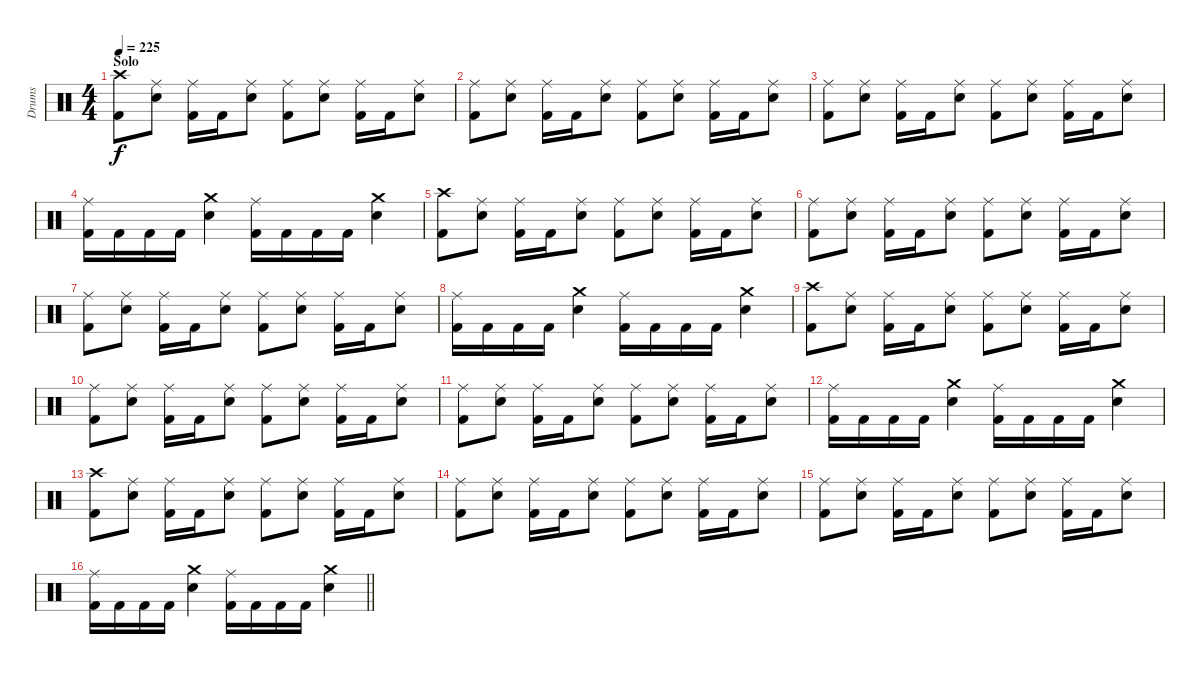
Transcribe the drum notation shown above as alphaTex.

\track ("Drums" "Drums") {instrument percussion}
\staff {score}
\articulation defaults
\ts (4 4)
\section ("" "Solo")
\tempo 225
\clef neutral
\ks c
("Crash high (hit)" "Kick (hit) 2").8{dy f} ("Ride (middle)" "Snare (hit) 2").8 ("Ride (middle)" "Kick (hit) 2").16 "Kick (hit) 2".16 ("Ride (middle)" "Snare (hit) 2").8 ("Ride (middle)" "Kick (hit) 2").8 ("Ride (middle)" "Snare (hit) 2").8 ("Ride (middle)" "Kick (hit) 2").16 "Kick (hit) 2".16 ("Ride (middle)" "Snare (hit) 2").8 |
("Ride (middle)" "Kick (hit) 2").8 ("Ride (middle)" "Snare (hit) 2").8 ("Ride (middle)" "Kick (hit) 2").16 "Kick (hit) 2".16 ("Ride (middle)" "Snare (hit) 2").8 ("Ride (middle)" "Kick (hit) 2").8 ("Ride (middle)" "Snare (hit) 2").8 ("Ride (middle)" "Kick (hit) 2").16 "Kick (hit) 2".16 ("Ride (middle)" "Snare (hit) 2").8 |
("Ride (middle)" "Kick (hit) 2").8 ("Ride (middle)" "Snare (hit) 2").8 ("Ride (middle)" "Kick (hit) 2").16 "Kick (hit) 2".16 ("Ride (middle)" "Snare (hit) 2").8 ("Ride (middle)" "Kick (hit) 2").8 ("Ride (middle)" "Snare (hit) 2").8 ("Ride (middle)" "Kick (hit) 2").16 "Kick (hit) 2".16 ("Ride (middle)" "Snare (hit) 2").8 |
("Ride (middle)" "Kick (hit) 2").16 "Kick (hit) 2".16 "Kick (hit) 2".16 "Kick (hit) 2".16 ("Crash medium (hit)" "Snare (hit) 2").4 ("Ride (middle)" "Kick (hit) 2").16 "Kick (hit) 2".16 "Kick (hit) 2".16 "Kick (hit) 2".16 ("Crash medium (hit)" "Snare (hit) 2").4 |
("Crash high (hit)" "Kick (hit) 2").8 ("Ride (middle)" "Snare (hit) 2").8 ("Ride (middle)" "Kick (hit) 2").16 "Kick (hit) 2".16 ("Ride (middle)" "Snare (hit) 2").8 ("Ride (middle)" "Kick (hit) 2").8 ("Ride (middle)" "Snare (hit) 2").8 ("Ride (middle)" "Kick (hit) 2").16 "Kick (hit) 2".16 ("Ride (middle)" "Snare (hit) 2").8 |
("Ride (middle)" "Kick (hit) 2").8 ("Ride (middle)" "Snare (hit) 2").8 ("Ride (middle)" "Kick (hit) 2").16 "Kick (hit) 2".16 ("Ride (middle)" "Snare (hit) 2").8 ("Ride (middle)" "Kick (hit) 2").8 ("Ride (middle)" "Snare (hit) 2").8 ("Ride (middle)" "Kick (hit) 2").16 "Kick (hit) 2".16 ("Ride (middle)" "Snare (hit) 2").8 |
("Ride (middle)" "Kick (hit) 2").8 ("Ride (middle)" "Snare (hit) 2").8 ("Ride (middle)" "Kick (hit) 2").16 "Kick (hit) 2".16 ("Ride (middle)" "Snare (hit) 2").8 ("Ride (middle)" "Kick (hit) 2").8 ("Ride (middle)" "Snare (hit) 2").8 ("Ride (middle)" "Kick (hit) 2").16 "Kick (hit) 2".16 ("Ride (middle)" "Snare (hit) 2").8 |
("Ride (middle)" "Kick (hit) 2").16 "Kick (hit) 2".16 "Kick (hit) 2".16 "Kick (hit) 2".16 ("Crash medium (hit)" "Snare (hit) 2").4 ("Ride (middle)" "Kick (hit) 2").16 "Kick (hit) 2".16 "Kick (hit) 2".16 "Kick (hit) 2".16 ("Crash medium (hit)" "Snare (hit) 2").4 |
("Crash high (hit)" "Kick (hit) 2").8 ("Ride (middle)" "Snare (hit) 2").8 ("Ride (middle)" "Kick (hit) 2").16 "Kick (hit) 2".16 ("Ride (middle)" "Snare (hit) 2").8 ("Ride (middle)" "Kick (hit) 2").8 ("Ride (middle)" "Snare (hit) 2").8 ("Ride (middle)" "Kick (hit) 2").16 "Kick (hit) 2".16 ("Ride (middle)" "Snare (hit) 2").8 |
("Ride (middle)" "Kick (hit) 2").8 ("Ride (middle)" "Snare (hit) 2").8 ("Ride (middle)" "Kick (hit) 2").16 "Kick (hit) 2".16 ("Ride (middle)" "Snare (hit) 2").8 ("Ride (middle)" "Kick (hit) 2").8 ("Ride (middle)" "Snare (hit) 2").8 ("Ride (middle)" "Kick (hit) 2").16 "Kick (hit) 2".16 ("Ride (middle)" "Snare (hit) 2").8 |
("Ride (middle)" "Kick (hit) 2").8 ("Ride (middle)" "Snare (hit) 2").8 ("Ride (middle)" "Kick (hit) 2").16 "Kick (hit) 2".16 ("Ride (middle)" "Snare (hit) 2").8 ("Ride (middle)" "Kick (hit) 2").8 ("Ride (middle)" "Snare (hit) 2").8 ("Ride (middle)" "Kick (hit) 2").16 "Kick (hit) 2".16 ("Ride (middle)" "Snare (hit) 2").8 |
("Ride (middle)" "Kick (hit) 2").16 "Kick (hit) 2".16 "Kick (hit) 2".16 "Kick (hit) 2".16 ("Crash medium (hit)" "Snare (hit) 2").4 ("Ride (middle)" "Kick (hit) 2").16 "Kick (hit) 2".16 "Kick (hit) 2".16 "Kick (hit) 2".16 ("Crash medium (hit)" "Snare (hit) 2").4 |
("Crash high (hit)" "Kick (hit) 2").8 ("Ride (middle)" "Snare (hit) 2").8 ("Ride (middle)" "Kick (hit) 2").16 "Kick (hit) 2".16 ("Ride (middle)" "Snare (hit) 2").8 ("Ride (middle)" "Kick (hit) 2").8 ("Ride (middle)" "Snare (hit) 2").8 ("Ride (middle)" "Kick (hit) 2").16 "Kick (hit) 2".16 ("Ride (middle)" "Snare (hit) 2").8 |
("Ride (middle)" "Kick (hit) 2").8 ("Ride (middle)" "Snare (hit) 2").8 ("Ride (middle)" "Kick (hit) 2").16 "Kick (hit) 2".16 ("Ride (middle)" "Snare (hit) 2").8 ("Ride (middle)" "Kick (hit) 2").8 ("Ride (middle)" "Snare (hit) 2").8 ("Ride (middle)" "Kick (hit) 2").16 "Kick (hit) 2".16 ("Ride (middle)" "Snare (hit) 2").8 |
("Ride (middle)" "Kick (hit) 2").8 ("Ride (middle)" "Snare (hit) 2").8 ("Ride (middle)" "Kick (hit) 2").16 "Kick (hit) 2".16 ("Ride (middle)" "Snare (hit) 2").8 ("Ride (middle)" "Kick (hit) 2").8 ("Ride (middle)" "Snare (hit) 2").8 ("Ride (middle)" "Kick (hit) 2").16 "Kick (hit) 2".16 ("Ride (middle)" "Snare (hit) 2").8 |
\barLineRight lightlight
("Ride (middle)" "Kick (hit) 2").16 "Kick (hit) 2".16 "Kick (hit) 2".16 "Kick (hit) 2".16 ("Crash medium (hit)" "Snare (hit) 2").4 ("Ride (middle)" "Kick (hit) 2").16 "Kick (hit) 2".16 "Kick (hit) 2".16 "Kick (hit) 2".16 ("Crash medium (hit)" "Snare (hit) 2").4
